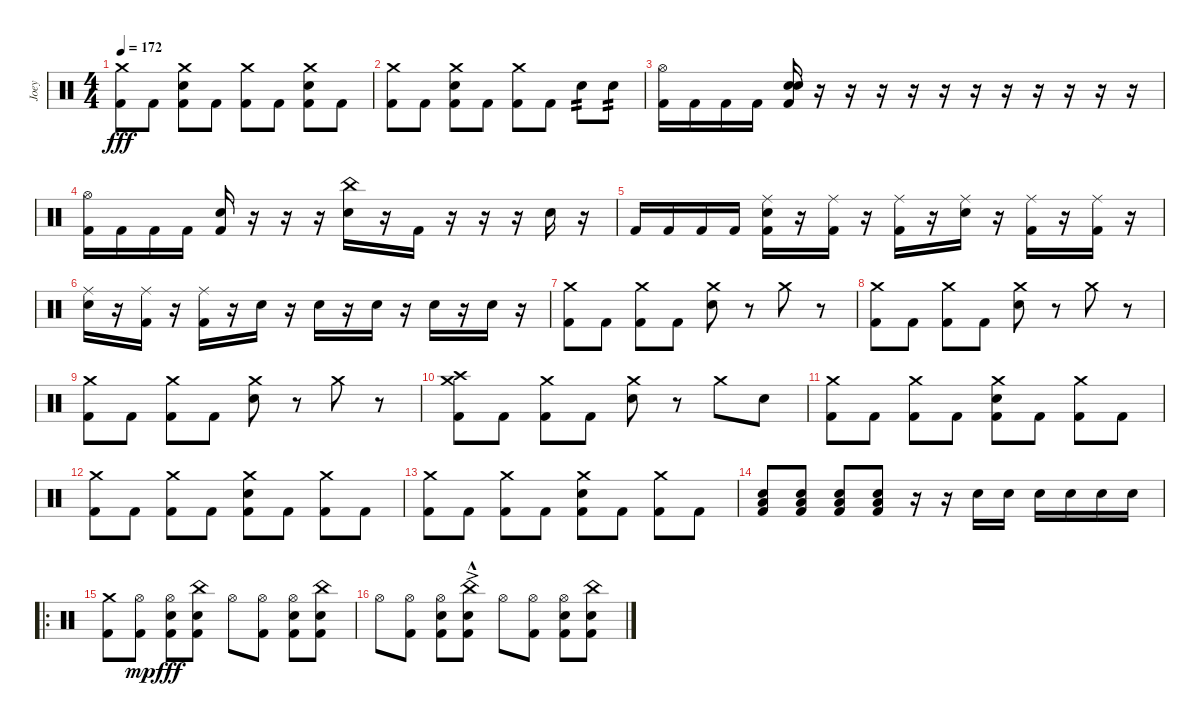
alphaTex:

\track ("Joey" "Joey") {instrument percussion}
\staff {score}
\articulation defaults
\ts (4 4)
\tempo 172
\clef neutral
\ks c
("Crash medium (hit)" "Kick (hit) 2").8{dy fff} "Kick (hit) 2".8 ("Crash medium (hit)" "Snare (hit) 2" "Kick (hit) 2").8 "Kick (hit) 2".8 ("Crash medium (hit)" "Kick (hit) 2").8 "Kick (hit) 2".8 ("Crash medium (hit)" "Snare (hit) 2" "Kick (hit) 2").8 "Kick (hit) 2".8 |
("Crash medium (hit)" "Kick (hit) 2").8 "Kick (hit) 2".8 ("Crash medium (hit)" "Snare (hit) 2" "Kick (hit) 2").8 "Kick (hit) 2".8 ("Crash medium (hit)" "Kick (hit) 2").8 "Kick (hit) 2".8 "Snare (hit) 2".8{tp 2} "Snare (hit) 2".8{tp 2} |
("Hi-Hat (open)" "Kick (hit) 2").16 "Kick (hit) 2".16 "Kick (hit) 2".16 "Kick (hit) 2".16 ("Snare (hit) 2" "Snare (hit) 2" "Kick (hit) 2").16 r.16 r.16 r.16 r.16 r.16 r.16 r.16 r.16 r.16 r.16 r.16 |
("Hi-Hat (open)" "Kick (hit) 2").16 "Kick (hit) 2".16 "Kick (hit) 2".16 "Kick (hit) 2".16 ("Snare (hit) 2" "Kick (hit) 2").16 r.16 r.16 r.16 ("China (hit)" "Snare (hit) 2").16 r.16 "Kick (hit) 2".16 r.16 r.16 r.16 "Snare (hit) 2".16 r.16 |
"Kick (hit) 2".16 "Kick (hit) 2".16 "Kick (hit) 2".16 "Kick (hit) 2".16 ("Ride (middle)" "Snare (hit) 2" "Kick (hit) 2").16 r.16 ("Ride (middle)" "Kick (hit) 2").16 r.16 ("Ride (middle)" "Kick (hit) 2").16 r.16 ("Ride (middle)" "Snare (hit) 2").16 r.16 ("Ride (middle)" "Kick (hit) 2").16 r.16 ("Ride (middle)" "Kick (hit) 2").16 r.16 |
("Ride (middle)" "Snare (hit) 2").16 r.16 ("Ride (middle)" "Kick (hit) 2").16 r.16 ("Ride (middle)" "Kick (hit) 2").16 r.16 "Snare (hit) 2".16 r.16 "Snare (hit) 2".16 r.16 "Snare (hit) 2".16 r.16 "Snare (hit) 2".16 r.16 "Snare (hit) 2".16 r.16 |
("Crash medium (hit)" "Kick (hit) 2").8 "Kick (hit) 2".8 ("Crash medium (hit)" "Kick (hit) 2").8 "Kick (hit) 2".8 ("Crash medium (hit)" "Snare (hit) 2").8 r.8 "Crash medium (hit)".8 r.8 |
("Crash medium (hit)" "Kick (hit) 2").8 "Kick (hit) 2".8 ("Crash medium (hit)" "Kick (hit) 2").8 "Kick (hit) 2".8 ("Crash medium (hit)" "Snare (hit) 2").8 r.8 "Crash medium (hit)".8 r.8 |
("Crash medium (hit)" "Kick (hit) 2").8 "Kick (hit) 2".8 ("Crash medium (hit)" "Kick (hit) 2").8 "Kick (hit) 2".8 ("Crash medium (hit)" "Snare (hit) 2").8 r.8 "Crash medium (hit)".8 r.8 |
("Crash medium (hit)" "Crash high (hit)" "Kick (hit) 2").8 "Kick (hit) 2".8 ("Crash medium (hit)" "Kick (hit) 2").8 "Kick (hit) 2".8 ("Crash medium (hit)" "Snare (hit) 2").8 r.8 "Crash medium (hit)".8 "Snare (hit) 2".8 |
("Crash medium (hit)" "Kick (hit) 2").8 "Kick (hit) 2".8 ("Crash medium (hit)" "Kick (hit) 2").8 "Kick (hit) 2".8 ("Crash medium (hit)" "Snare (hit) 2" "Kick (hit) 2").8 "Kick (hit) 2".8 ("Crash medium (hit)" "Kick (hit) 2").8 "Kick (hit) 2".8 |
("Crash medium (hit)" "Kick (hit) 2").8 "Kick (hit) 2".8 ("Crash medium (hit)" "Kick (hit) 2").8 "Kick (hit) 2".8 ("Crash medium (hit)" "Snare (hit) 2" "Kick (hit) 2").8 "Kick (hit) 2".8 ("Crash medium (hit)" "Kick (hit) 2").8 "Kick (hit) 2".8 |
("Crash medium (hit)" "Kick (hit) 2").8 "Kick (hit) 2".8 ("Crash medium (hit)" "Kick (hit) 2").8 "Kick (hit) 2".8 ("Crash medium (hit)" "Snare (hit) 2" "Kick (hit) 2").8 "Kick (hit) 2".8 ("Crash medium (hit)" "Kick (hit) 2").8 "Kick (hit) 2".8 |
("Snare (hit) 2" "Low Floor Tom (hit)" "Kick (hit) 2").8 ("Snare (hit) 2" "Low Floor Tom (hit)" "Kick (hit) 2").8 ("Snare (hit) 2" "Low Floor Tom (hit)" "Kick (hit) 2").8 ("Snare (hit) 2" "Low Floor Tom (hit)" "Kick (hit) 2").8 r.16 r.16 "Snare (hit) 2".16 "Snare (hit) 2".16 "Snare (hit) 2".16 "Snare (hit) 2".16 "Snare (hit) 2".16 "Snare (hit) 2".16 |
\ro
("Crash medium (hit)" "Kick (hit) 2").8 ("Hi-Hat (open)" "Kick (hit) 2").8{dy mp} ("Hi-Hat (open)" "Snare (hit) 2" "Kick (hit) 2").8{dy fff} ("China (hit)" "Snare (hit) 2" "Kick (hit) 2").8 "Hi-Hat (open)".8 ("Hi-Hat (open)" "Kick (hit) 2").8 ("Hi-Hat (open)" "Snare (hit) 2" "Kick (hit) 2").8 ("China (hit)" "Snare (hit) 2" "Kick (hit) 2").8 |
"Hi-Hat (open)".8 ("Hi-Hat (open)" "Kick (hit) 2").8 ("Hi-Hat (open)" "Snare (hit) 2" "Kick (hit) 2").8 ("China (hit)"{ac} "Snare (hit) 2"{hac} "Kick (hit) 2").8 "Hi-Hat (open)".8 ("Hi-Hat (open)" "Kick (hit) 2").8 ("Hi-Hat (open)" "Snare (hit) 2" "Kick (hit) 2").8 ("China (hit)" "Snare (hit) 2" "Kick (hit) 2").8
